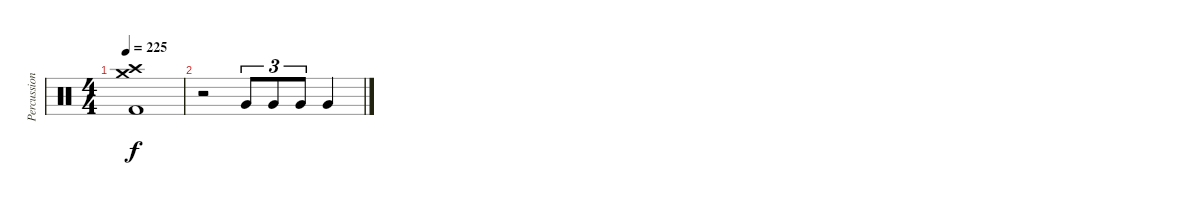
\track ("Percussion" "Percussion") {instrument percussion}
\staff {score}
\articulation defaults
\ts (4 4)
\tempo 225
\clef neutral
\ks c
("Crash medium (hit)" "Crash high (hit)" "Kick (hit) 2").1{dy f} |
r.2 "Very Low Tom (hit)".8{tu (3 2)} "Very Low Tom (hit)".8{tu (3 2)} "Very Low Tom (hit)".8{tu (3 2)} "Very Low Tom (hit)".4
